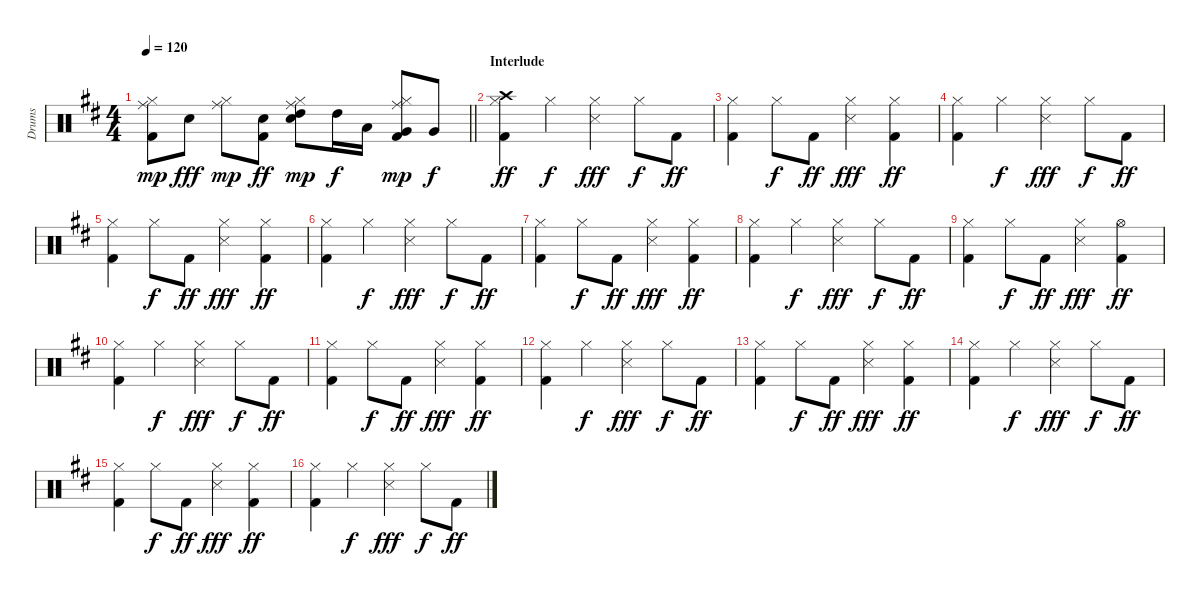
\track ("Drums" "Drums") {instrument percussion}
\staff {score}
\articulation defaults
\ts (4 4)
\tempo 120
\clef neutral
\barLineRight lightlight
\ks d
("Kick (hit) 2" "Hi-Hat (closed)" "Ride (middle)").8{dy mp} "Snare (hit) 2".8{dy fff} ("Hi-Hat (closed)" "Ride (middle)").8{dy mp} ("Kick (hit) 2" "Snare (hit) 2").8{dy ff} ("Snare (hit) 2" "Hi-Hat (closed)" "High Tom (hit)" "Ride (middle)").8{dy mp} "High Tom (hit)".16{dy f} "Low Tom (hit)".16 ("Kick (hit) 2" "Hi-Hat (closed)" "Very Low Tom (hit)" "Ride (middle)").8{dy mp} "Very Low Tom (hit)".8{dy f} |
\section ("" "Interlude")
("Kick (hit) 2" "Hi-Hat (closed)" "Crash high (hit)").4{dy ff} "Hi-Hat (closed)".4{dy f} ("Snare (side stick) 3" "Hi-Hat (closed)").4{dy fff} "Hi-Hat (closed)".8{dy f} "Kick (hit) 2".8{dy ff} |
("Kick (hit) 2" "Hi-Hat (closed)").4 "Hi-Hat (closed)".8{dy f} "Kick (hit) 2".8{dy ff} ("Snare (side stick) 3" "Hi-Hat (closed)").4{dy fff} ("Kick (hit) 2" "Hi-Hat (closed)").4{dy ff} |
("Kick (hit) 2" "Hi-Hat (closed)").4 "Hi-Hat (closed)".4{dy f} ("Snare (side stick) 3" "Hi-Hat (closed)").4{dy fff} "Hi-Hat (closed)".8{dy f} "Kick (hit) 2".8{dy ff} |
("Kick (hit) 2" "Hi-Hat (closed)").4 "Hi-Hat (closed)".8{dy f} "Kick (hit) 2".8{dy ff} ("Snare (side stick) 3" "Hi-Hat (closed)").4{dy fff} ("Kick (hit) 2" "Hi-Hat (closed)").4{dy ff} |
("Kick (hit) 2" "Hi-Hat (closed)").4 "Hi-Hat (closed)".4{dy f} ("Snare (side stick) 3" "Hi-Hat (closed)").4{dy fff} "Hi-Hat (closed)".8{dy f} "Kick (hit) 2".8{dy ff} |
("Kick (hit) 2" "Hi-Hat (closed)").4 "Hi-Hat (closed)".8{dy f} "Kick (hit) 2".8{dy ff} ("Snare (side stick) 3" "Hi-Hat (closed)").4{dy fff} ("Kick (hit) 2" "Hi-Hat (closed)").4{dy ff} |
("Kick (hit) 2" "Hi-Hat (closed)").4 "Hi-Hat (closed)".4{dy f} ("Snare (side stick) 3" "Hi-Hat (closed)").4{dy fff} "Hi-Hat (closed)".8{dy f} "Kick (hit) 2".8{dy ff} |
("Kick (hit) 2" "Hi-Hat (closed)").4 "Hi-Hat (closed)".8{dy f} "Kick (hit) 2".8{dy ff} ("Snare (side stick) 3" "Hi-Hat (closed)").4{dy fff} ("Kick (hit) 2" "Hi-Hat (open)").4{dy ff} |
("Kick (hit) 2" "Hi-Hat (closed)").4 "Hi-Hat (closed)".4{dy f} ("Snare (side stick) 3" "Hi-Hat (closed)").4{dy fff} "Hi-Hat (closed)".8{dy f} "Kick (hit) 2".8{dy ff} |
("Kick (hit) 2" "Hi-Hat (closed)").4 "Hi-Hat (closed)".8{dy f} "Kick (hit) 2".8{dy ff} ("Snare (side stick) 3" "Hi-Hat (closed)").4{dy fff} ("Kick (hit) 2" "Hi-Hat (closed)").4{dy ff} |
("Kick (hit) 2" "Hi-Hat (closed)").4 "Hi-Hat (closed)".4{dy f} ("Snare (side stick) 3" "Hi-Hat (closed)").4{dy fff} "Hi-Hat (closed)".8{dy f} "Kick (hit) 2".8{dy ff} |
("Kick (hit) 2" "Hi-Hat (closed)").4 "Hi-Hat (closed)".8{dy f} "Kick (hit) 2".8{dy ff} ("Snare (side stick) 3" "Hi-Hat (closed)").4{dy fff} ("Kick (hit) 2" "Hi-Hat (closed)").4{dy ff} |
("Kick (hit) 2" "Hi-Hat (closed)").4 "Hi-Hat (closed)".4{dy f} ("Snare (side stick) 3" "Hi-Hat (closed)").4{dy fff} "Hi-Hat (closed)".8{dy f} "Kick (hit) 2".8{dy ff} |
("Kick (hit) 2" "Hi-Hat (closed)").4 "Hi-Hat (closed)".8{dy f} "Kick (hit) 2".8{dy ff} ("Snare (side stick) 3" "Hi-Hat (closed)").4{dy fff} ("Kick (hit) 2" "Hi-Hat (closed)").4{dy ff} |
("Kick (hit) 2" "Hi-Hat (closed)").4 "Hi-Hat (closed)".4{dy f} ("Snare (side stick) 3" "Hi-Hat (closed)").4{dy fff} "Hi-Hat (closed)".8{dy f} "Kick (hit) 2".8{dy ff}
